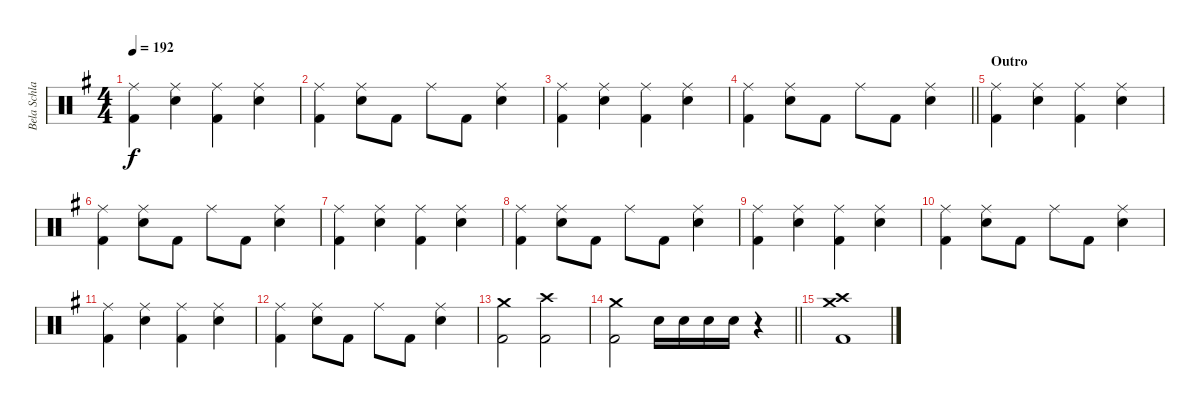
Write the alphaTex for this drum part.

\track ("Bela Schlagzeug" "Bela Schla") {instrument percussion}
\staff {score}
\articulation defaults
\ts (4 4)
\tempo 192
\clef neutral
\ks g
("Ride (middle)" "Kick (hit) 2").4{dy f} ("Ride (middle)" "Electric Snare (hit)").4 ("Ride (middle)" "Kick (hit) 2").4 ("Ride (middle)" "Electric Snare (hit)").4 |
("Ride (middle)" "Kick (hit) 2").4 ("Ride (middle)" "Electric Snare (hit)").8 "Kick (hit) 2".8 "Ride (middle)".8 "Kick (hit) 2".8 ("Ride (middle)" "Electric Snare (hit)").4 |
("Ride (middle)" "Kick (hit) 2").4 ("Ride (middle)" "Electric Snare (hit)").4 ("Ride (middle)" "Kick (hit) 2").4 ("Ride (middle)" "Electric Snare (hit)").4 |
\barLineRight lightlight
("Ride (middle)" "Kick (hit) 2").4 ("Ride (middle)" "Electric Snare (hit)").8 "Kick (hit) 2".8 "Ride (middle)".8 "Kick (hit) 2".8 ("Ride (middle)" "Electric Snare (hit)").4 |
\section ("" "Outro")
("Ride (middle)" "Kick (hit) 2").4 ("Ride (middle)" "Electric Snare (hit)").4 ("Ride (middle)" "Kick (hit) 2").4 ("Ride (middle)" "Electric Snare (hit)").4 |
("Ride (middle)" "Kick (hit) 2").4 ("Ride (middle)" "Electric Snare (hit)").8 "Kick (hit) 2".8 "Ride (middle)".8 "Kick (hit) 2".8 ("Ride (middle)" "Electric Snare (hit)").4 |
("Ride (middle)" "Kick (hit) 2").4 ("Ride (middle)" "Electric Snare (hit)").4 ("Ride (middle)" "Kick (hit) 2").4 ("Ride (middle)" "Electric Snare (hit)").4 |
("Ride (middle)" "Kick (hit) 2").4 ("Ride (middle)" "Electric Snare (hit)").8 "Kick (hit) 2".8 "Ride (middle)".8 "Kick (hit) 2".8 ("Ride (middle)" "Electric Snare (hit)").4 |
("Ride (middle)" "Kick (hit) 2").4 ("Ride (middle)" "Electric Snare (hit)").4 ("Ride (middle)" "Kick (hit) 2").4 ("Ride (middle)" "Electric Snare (hit)").4 |
("Ride (middle)" "Kick (hit) 2").4 ("Ride (middle)" "Electric Snare (hit)").8 "Kick (hit) 2".8 "Ride (middle)".8 "Kick (hit) 2".8 ("Ride (middle)" "Electric Snare (hit)").4 |
("Ride (middle)" "Kick (hit) 2").4 ("Ride (middle)" "Electric Snare (hit)").4 ("Ride (middle)" "Kick (hit) 2").4 ("Ride (middle)" "Electric Snare (hit)").4 |
("Ride (middle)" "Kick (hit) 2").4 ("Ride (middle)" "Electric Snare (hit)").8 "Kick (hit) 2".8 "Ride (middle)".8 "Kick (hit) 2".8 ("Ride (middle)" "Electric Snare (hit)").4 |
("Crash medium (hit)" "Kick (hit) 2").2 ("Crash high (hit)" "Kick (hit) 2").2 |
\barLineRight lightlight
("Crash medium (hit)" "Kick (hit) 2").2 "Electric Snare (hit)".16 "Electric Snare (hit)".16 "Electric Snare (hit)".16 "Electric Snare (hit)".16 r.4 |
("Crash high (hit)" "Crash medium (hit)" "Kick (hit) 2").1
